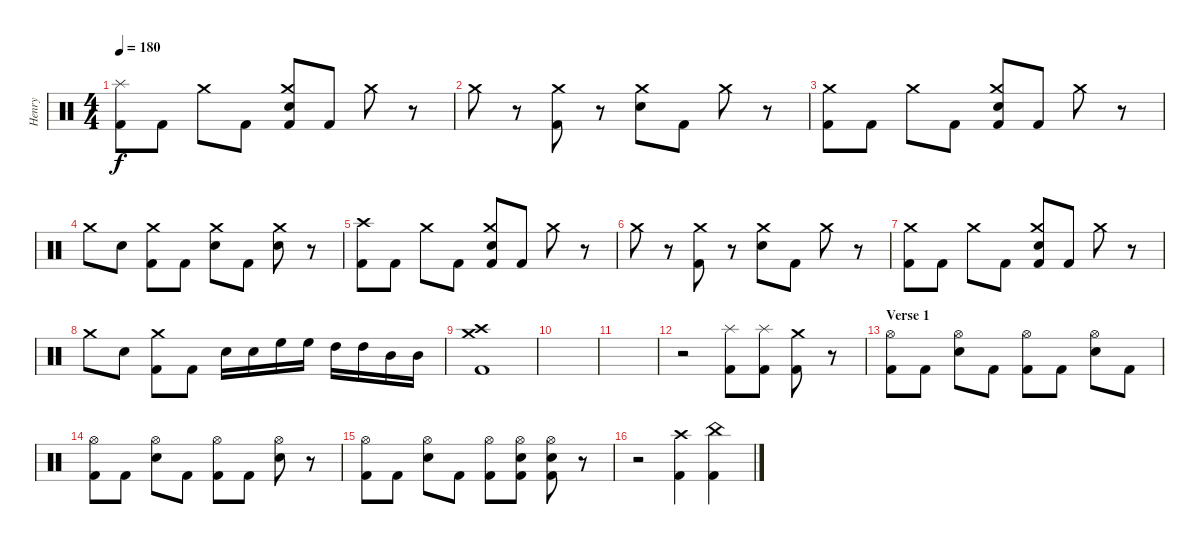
\track ("Henry" "Henry") {instrument percussion}
\staff {score}
\articulation defaults
\ts (4 4)
\tempo 180
\clef neutral
\ks c
("Splash (hit)" "Kick (hit) 2").8{dy f} "Kick (hit) 2".8 "Crash medium (hit)".8 "Kick (hit) 2".8 ("Crash medium (hit)" "Snare (hit) 2" "Kick (hit) 2").8 "Kick (hit) 2".8 "Crash medium (hit)".8 r.8 |
"Crash medium (hit)".8 r.8 ("Crash medium (hit)" "Kick (hit) 2").8 r.8 ("Crash medium (hit)" "Snare (hit) 2").8 "Kick (hit) 2".8 "Crash medium (hit)".8 r.8 |
("Crash medium (hit)" "Kick (hit) 2").8 "Kick (hit) 2".8 "Crash medium (hit)".8 "Kick (hit) 2".8 ("Crash medium (hit)" "Snare (hit) 2" "Kick (hit) 2").8 "Kick (hit) 2".8 "Crash medium (hit)".8 r.8 |
"Crash medium (hit)".8 "Snare (hit) 2".8 ("Crash medium (hit)" "Kick (hit) 2").8 "Kick (hit) 2".8 ("Crash medium (hit)" "Snare (hit) 2").8 "Kick (hit) 2".8 ("Crash medium (hit)" "Snare (hit) 2").8 r.8 |
("Crash high (hit)" "Kick (hit) 2").8 "Kick (hit) 2".8 "Crash medium (hit)".8 "Kick (hit) 2".8 ("Crash medium (hit)" "Snare (hit) 2" "Kick (hit) 2").8 "Kick (hit) 2".8 "Crash medium (hit)".8 r.8 |
"Crash medium (hit)".8 r.8 ("Crash medium (hit)" "Kick (hit) 2").8 r.8 ("Crash medium (hit)" "Snare (hit) 2").8 "Kick (hit) 2".8 "Crash medium (hit)".8 r.8 |
("Crash medium (hit)" "Kick (hit) 2").8 "Kick (hit) 2".8 "Crash medium (hit)".8 "Kick (hit) 2".8 ("Crash medium (hit)" "Snare (hit) 2" "Kick (hit) 2").8 "Kick (hit) 2".8 "Crash medium (hit)".8 r.8 |
"Crash medium (hit)".8 "Snare (hit) 2".8 ("Crash medium (hit)" "Kick (hit) 2").8 "Kick (hit) 2".8 "Snare (hit) 2".16 "Snare (hit) 2".16 "High Floor Tom (hit)".16 "High Floor Tom (hit)".16 "High Tom (hit)".16 "High Tom (hit)".16 "Mid Tom (hit)".16 "Mid Tom (hit)".16 |
("Crash high (hit)" "Crash medium (hit)" "Kick (hit) 2").1 |
|
|
r.2 ("Splash (hit)" "Kick (hit) 2").8 ("Splash (hit)" "Kick (hit) 2").8 ("Crash medium (hit)" "Kick (hit) 2").8 r.8 |
\section ("" "Verse 1")
("Hi-Hat (open)" "Kick (hit) 2").8 "Kick (hit) 2".8 ("Hi-Hat (open)" "Snare (hit) 2").8 "Kick (hit) 2".8 ("Hi-Hat (open)" "Kick (hit) 2").8 "Kick (hit) 2".8 ("Hi-Hat (open)" "Snare (hit) 2").8 "Kick (hit) 2".8 |
("Hi-Hat (open)" "Kick (hit) 2").8 "Kick (hit) 2".8 ("Hi-Hat (open)" "Snare (hit) 2").8 "Kick (hit) 2".8 ("Hi-Hat (open)" "Kick (hit) 2").8 "Kick (hit) 2".8 ("Hi-Hat (open)" "Snare (hit) 2").8 r.8 |
("Hi-Hat (open)" "Kick (hit) 2").8 "Kick (hit) 2".8 ("Hi-Hat (open)" "Snare (hit) 2").8 "Kick (hit) 2".8 ("Hi-Hat (open)" "Kick (hit) 2").8 ("Hi-Hat (open)" "Snare (hit) 2" "Kick (hit) 2").8 ("Hi-Hat (open)" "Snare (hit) 2" "Kick (hit) 2").8 r.8 |
r.2 ("Crash high (hit)" "Kick (hit) 2").4 ("China (hit)" "Kick (hit) 2").4
